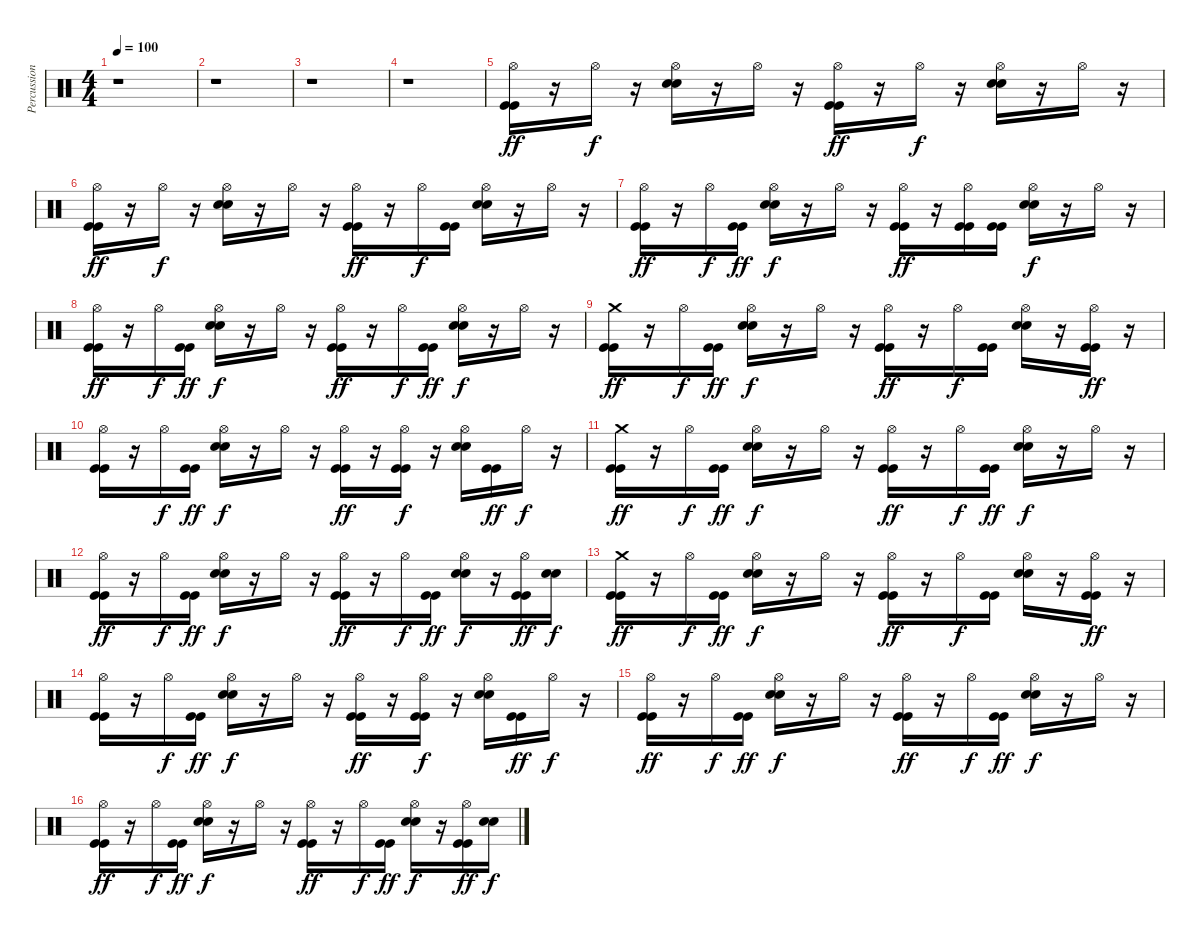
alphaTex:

\track ("Percussions" "Percussion") {instrument percussion}
\staff {score}
\articulation defaults
\ts (4 4)
\tempo 100
\clef neutral
\ks c
r.1{dy ff} |
r.1 |
r.1 |
r.1 |
("Hi-Hat (open)" "Kick (hit)" "Kick (hit)").16 r.16 "Hi-Hat (open)".16{dy f} r.16 ("Hi-Hat (open)" "Electric Snare (hit)" "Electric Snare (hit)").16 r.16 "Hi-Hat (open)".16 r.16 ("Hi-Hat (open)" "Kick (hit)" "Kick (hit)").16{dy ff} r.16 "Hi-Hat (open)".16{dy f} r.16 ("Hi-Hat (open)" "Electric Snare (hit)" "Electric Snare (hit)").16 r.16 "Hi-Hat (open)".16 r.16 |
("Hi-Hat (open)" "Kick (hit)" "Kick (hit)").16{dy ff} r.16 "Hi-Hat (open)".16{dy f} r.16 ("Hi-Hat (open)" "Electric Snare (hit)" "Electric Snare (hit)").16 r.16 "Hi-Hat (open)".16 r.16 ("Hi-Hat (open)" "Kick (hit)" "Kick (hit)").16{dy ff} r.16 "Hi-Hat (open)".16{dy f} ("Kick (hit)" "Kick (hit)").16 ("Hi-Hat (open)" "Electric Snare (hit)" "Electric Snare (hit)").16 r.16 "Hi-Hat (open)".16 r.16 |
("Hi-Hat (open)" "Kick (hit)" "Kick (hit)").16{dy ff} r.16 "Hi-Hat (open)".16{dy f} ("Kick (hit)" "Kick (hit)").16{dy ff} ("Hi-Hat (open)" "Electric Snare (hit)" "Electric Snare (hit)").16{dy f} r.16 "Hi-Hat (open)".16 r.16 ("Hi-Hat (open)" "Kick (hit)" "Kick (hit)").16{dy ff} r.16 ("Hi-Hat (open)" "Kick (hit)" "Kick (hit)").16 ("Kick (hit)" "Kick (hit)").16 ("Hi-Hat (open)" "Electric Snare (hit)" "Electric Snare (hit)").16{dy f} r.16 "Hi-Hat (open)".16 r.16 |
("Hi-Hat (open)" "Kick (hit)" "Kick (hit)").16{dy ff} r.16 "Hi-Hat (open)".16{dy f} ("Kick (hit)" "Kick (hit)").16{dy ff} ("Hi-Hat (open)" "Electric Snare (hit)" "Electric Snare (hit)").16{dy f} r.16 "Hi-Hat (open)".16 r.16 ("Hi-Hat (open)" "Kick (hit)" "Kick (hit)").16{dy ff} r.16 "Hi-Hat (open)".16{dy f} ("Kick (hit)" "Kick (hit)").16{dy ff} ("Hi-Hat (open)" "Electric Snare (hit)" "Electric Snare (hit)").16{dy f} r.16 "Hi-Hat (open)".16 r.16 |
("Crash medium (hit)" "Kick (hit)" "Kick (hit)").16{dy ff} r.16 "Hi-Hat (open)".16{dy f} ("Kick (hit)" "Kick (hit)").16{dy ff} ("Hi-Hat (open)" "Electric Snare (hit)" "Electric Snare (hit)").16{dy f} r.16 "Hi-Hat (open)".16 r.16 ("Hi-Hat (open)" "Kick (hit)" "Kick (hit)").16{dy ff} r.16 "Hi-Hat (open)".16{dy f} ("Kick (hit)" "Kick (hit)").16 ("Hi-Hat (open)" "Electric Snare (hit)" "Electric Snare (hit)").16 r.16 ("Hi-Hat (open)" "Kick (hit)" "Kick (hit)").16{dy ff} r.16 |
("Hi-Hat (open)" "Kick (hit)" "Kick (hit)").16 r.16 "Hi-Hat (open)".16{dy f} ("Kick (hit)" "Kick (hit)").16{dy ff} ("Hi-Hat (open)" "Electric Snare (hit)" "Electric Snare (hit)").16{dy f} r.16 "Hi-Hat (open)".16 r.16 ("Hi-Hat (open)" "Kick (hit)" "Kick (hit)").16{dy ff} r.16 ("Hi-Hat (open)" "Kick (hit)" "Kick (hit)").16{dy f} r.16 ("Hi-Hat (open)" "Electric Snare (hit)" "Electric Snare (hit)").16 ("Kick (hit)" "Kick (hit)").16{dy ff} "Hi-Hat (open)".16{dy f} r.16 |
("Crash medium (hit)" "Kick (hit)" "Kick (hit)").16{dy ff} r.16 "Hi-Hat (open)".16{dy f} ("Kick (hit)" "Kick (hit)").16{dy ff} ("Hi-Hat (open)" "Electric Snare (hit)" "Electric Snare (hit)").16{dy f} r.16 "Hi-Hat (open)".16 r.16 ("Hi-Hat (open)" "Kick (hit)" "Kick (hit)").16{dy ff} r.16 "Hi-Hat (open)".16{dy f} ("Kick (hit)" "Kick (hit)").16{dy ff} ("Hi-Hat (open)" "Electric Snare (hit)" "Electric Snare (hit)").16{dy f} r.16 "Hi-Hat (open)".16 r.16 |
("Hi-Hat (open)" "Kick (hit)" "Kick (hit)").16{dy ff} r.16 "Hi-Hat (open)".16{dy f} ("Kick (hit)" "Kick (hit)").16{dy ff} ("Hi-Hat (open)" "Electric Snare (hit)" "Electric Snare (hit)").16{dy f} r.16 "Hi-Hat (open)".16 r.16 ("Hi-Hat (open)" "Kick (hit)" "Kick (hit)").16{dy ff} r.16 "Hi-Hat (open)".16{dy f} ("Kick (hit)" "Kick (hit)").16{dy ff} ("Hi-Hat (open)" "Electric Snare (hit)" "Electric Snare (hit)").16{dy f} r.16 ("Hi-Hat (open)" "Kick (hit)" "Kick (hit)").16{dy ff} ("Electric Snare (hit)" "Electric Snare (hit)").16{dy f} |
("Crash medium (hit)" "Kick (hit)" "Kick (hit)").16{dy ff} r.16 "Hi-Hat (open)".16{dy f} ("Kick (hit)" "Kick (hit)").16{dy ff} ("Hi-Hat (open)" "Electric Snare (hit)" "Electric Snare (hit)").16{dy f} r.16 "Hi-Hat (open)".16 r.16 ("Hi-Hat (open)" "Kick (hit)" "Kick (hit)").16{dy ff} r.16 "Hi-Hat (open)".16{dy f} ("Kick (hit)" "Kick (hit)").16 ("Hi-Hat (open)" "Electric Snare (hit)" "Electric Snare (hit)").16 r.16 ("Hi-Hat (open)" "Kick (hit)" "Kick (hit)").16{dy ff} r.16 |
("Hi-Hat (open)" "Kick (hit)" "Kick (hit)").16 r.16 "Hi-Hat (open)".16{dy f} ("Kick (hit)" "Kick (hit)").16{dy ff} ("Hi-Hat (open)" "Electric Snare (hit)" "Electric Snare (hit)").16{dy f} r.16 "Hi-Hat (open)".16 r.16 ("Hi-Hat (open)" "Kick (hit)" "Kick (hit)").16{dy ff} r.16 ("Hi-Hat (open)" "Kick (hit)" "Kick (hit)").16{dy f} r.16 ("Hi-Hat (open)" "Electric Snare (hit)" "Electric Snare (hit)").16 ("Kick (hit)" "Kick (hit)").16{dy ff} "Hi-Hat (open)".16{dy f} r.16 |
("Hi-Hat (open)" "Kick (hit)" "Kick (hit)").16{dy ff} r.16 "Hi-Hat (open)".16{dy f} ("Kick (hit)" "Kick (hit)").16{dy ff} ("Hi-Hat (open)" "Electric Snare (hit)" "Electric Snare (hit)").16{dy f} r.16 "Hi-Hat (open)".16 r.16 ("Hi-Hat (open)" "Kick (hit)" "Kick (hit)").16{dy ff} r.16 "Hi-Hat (open)".16{dy f} ("Kick (hit)" "Kick (hit)").16{dy ff} ("Hi-Hat (open)" "Electric Snare (hit)" "Electric Snare (hit)").16{dy f} r.16 "Hi-Hat (open)".16 r.16 |
("Hi-Hat (open)" "Kick (hit)" "Kick (hit)").16{dy ff} r.16 "Hi-Hat (open)".16{dy f} ("Kick (hit)" "Kick (hit)").16{dy ff} ("Hi-Hat (open)" "Electric Snare (hit)" "Electric Snare (hit)").16{dy f} r.16 "Hi-Hat (open)".16 r.16 ("Hi-Hat (open)" "Kick (hit)" "Kick (hit)").16{dy ff} r.16 "Hi-Hat (open)".16{dy f} ("Kick (hit)" "Kick (hit)").16{dy ff} ("Hi-Hat (open)" "Electric Snare (hit)" "Electric Snare (hit)").16{dy f} r.16 ("Hi-Hat (open)" "Kick (hit)" "Kick (hit)").16{dy ff} ("Electric Snare (hit)" "Electric Snare (hit)").16{dy f}
